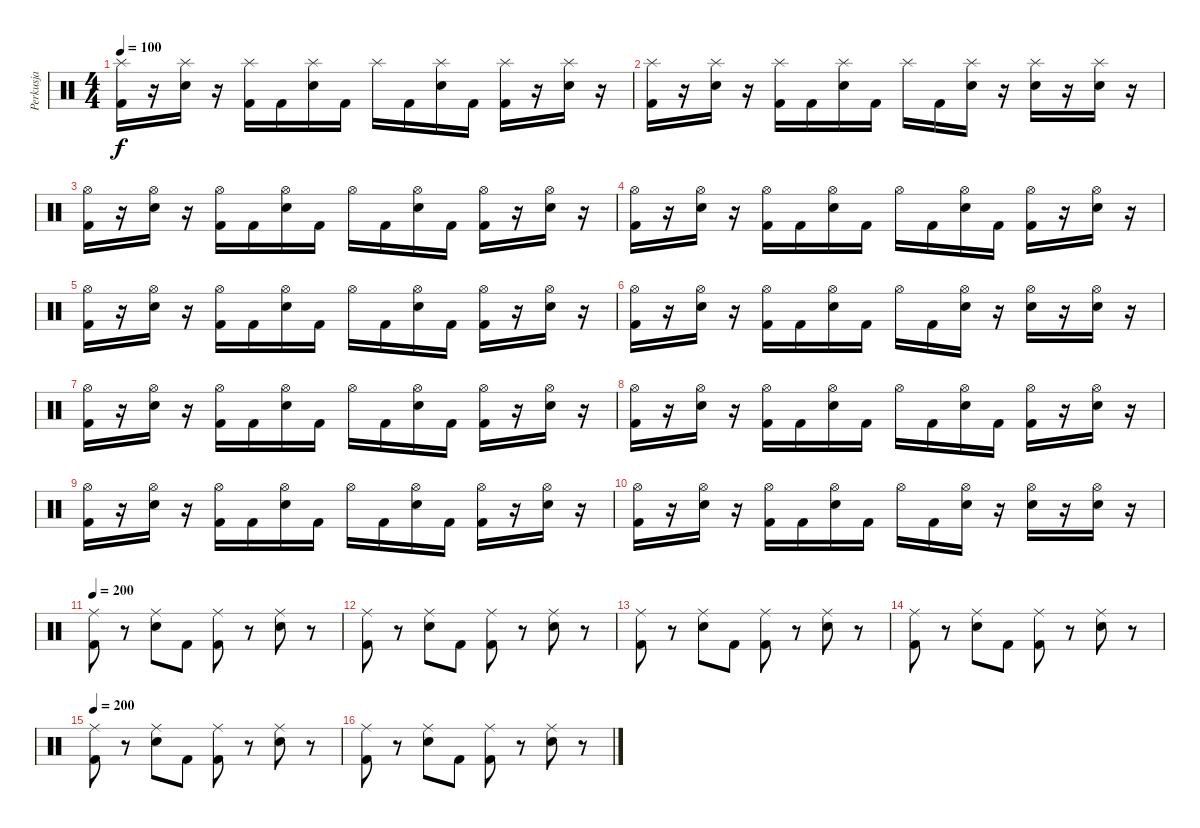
\track ("Perkusja" "Perkusja") {instrument percussion}
\staff {score}
\articulation defaults
\ts (4 4)
\tempo 100
\clef neutral
\ks c
("Splash (hit)" "Kick (hit) 2").16{dy f} r.16 ("Splash (hit)" "Snare (hit) 2").16 r.16 ("Splash (hit)" "Kick (hit) 2").16 "Kick (hit) 2".16 ("Splash (hit)" "Snare (hit) 2").16 "Kick (hit) 2".16 "Splash (hit)".16 "Kick (hit) 2".16 ("Splash (hit)" "Snare (hit) 2").16 "Kick (hit) 2".16 ("Splash (hit)" "Kick (hit) 2").16 r.16 ("Splash (hit)" "Snare (hit) 2").16 r.16 |
("Splash (hit)" "Kick (hit) 2").16 r.16 ("Splash (hit)" "Snare (hit) 2").16 r.16 ("Splash (hit)" "Kick (hit) 2").16 "Kick (hit) 2".16 ("Splash (hit)" "Snare (hit) 2").16 "Kick (hit) 2".16 "Splash (hit)".16 "Kick (hit) 2".16 ("Splash (hit)" "Snare (hit) 2").16 r.16 ("Splash (hit)" "Snare (hit) 2").16 r.16 ("Splash (hit)" "Snare (hit) 2").16 r.16 |
("Hi-Hat (open)" "Kick (hit) 2").16 r.16 ("Hi-Hat (open)" "Snare (hit) 2").16 r.16 ("Hi-Hat (open)" "Kick (hit) 2").16 "Kick (hit) 2".16 ("Hi-Hat (open)" "Snare (hit) 2").16 "Kick (hit) 2".16 "Hi-Hat (open)".16 "Kick (hit) 2".16 ("Hi-Hat (open)" "Snare (hit) 2").16 "Kick (hit) 2".16 ("Hi-Hat (open)" "Kick (hit) 2").16 r.16 ("Hi-Hat (open)" "Snare (hit) 2").16 r.16 |
("Hi-Hat (open)" "Kick (hit) 2").16 r.16 ("Hi-Hat (open)" "Snare (hit) 2").16 r.16 ("Hi-Hat (open)" "Kick (hit) 2").16 "Kick (hit) 2".16 ("Hi-Hat (open)" "Snare (hit) 2").16 "Kick (hit) 2".16 "Hi-Hat (open)".16 "Kick (hit) 2".16 ("Hi-Hat (open)" "Snare (hit) 2").16 "Kick (hit) 2".16 ("Hi-Hat (open)" "Kick (hit) 2").16 r.16 ("Hi-Hat (open)" "Snare (hit) 2").16 r.16 |
("Hi-Hat (open)" "Kick (hit) 2").16 r.16 ("Hi-Hat (open)" "Snare (hit) 2").16 r.16 ("Hi-Hat (open)" "Kick (hit) 2").16 "Kick (hit) 2".16 ("Hi-Hat (open)" "Snare (hit) 2").16 "Kick (hit) 2".16 "Hi-Hat (open)".16 "Kick (hit) 2".16 ("Hi-Hat (open)" "Snare (hit) 2").16 "Kick (hit) 2".16 ("Hi-Hat (open)" "Kick (hit) 2").16 r.16 ("Hi-Hat (open)" "Snare (hit) 2").16 r.16 |
("Hi-Hat (open)" "Kick (hit) 2").16 r.16 ("Hi-Hat (open)" "Snare (hit) 2").16 r.16 ("Hi-Hat (open)" "Kick (hit) 2").16 "Kick (hit) 2".16 ("Hi-Hat (open)" "Snare (hit) 2").16 "Kick (hit) 2".16 "Hi-Hat (open)".16 "Kick (hit) 2".16 ("Hi-Hat (open)" "Snare (hit) 2").16 r.16 ("Hi-Hat (open)" "Snare (hit) 2").16 r.16 ("Hi-Hat (open)" "Snare (hit) 2").16 r.16 |
("Hi-Hat (open)" "Kick (hit) 2").16 r.16 ("Hi-Hat (open)" "Snare (hit) 2").16 r.16 ("Hi-Hat (open)" "Kick (hit) 2").16 "Kick (hit) 2".16 ("Hi-Hat (open)" "Snare (hit) 2").16 "Kick (hit) 2".16 "Hi-Hat (open)".16 "Kick (hit) 2".16 ("Hi-Hat (open)" "Snare (hit) 2").16 "Kick (hit) 2".16 ("Hi-Hat (open)" "Kick (hit) 2").16 r.16 ("Hi-Hat (open)" "Snare (hit) 2").16 r.16 |
("Hi-Hat (open)" "Kick (hit) 2").16 r.16 ("Hi-Hat (open)" "Snare (hit) 2").16 r.16 ("Hi-Hat (open)" "Kick (hit) 2").16 "Kick (hit) 2".16 ("Hi-Hat (open)" "Snare (hit) 2").16 "Kick (hit) 2".16 "Hi-Hat (open)".16 "Kick (hit) 2".16 ("Hi-Hat (open)" "Snare (hit) 2").16 "Kick (hit) 2".16 ("Hi-Hat (open)" "Kick (hit) 2").16 r.16 ("Hi-Hat (open)" "Snare (hit) 2").16 r.16 |
("Hi-Hat (open)" "Kick (hit) 2").16 r.16 ("Hi-Hat (open)" "Snare (hit) 2").16 r.16 ("Hi-Hat (open)" "Kick (hit) 2").16 "Kick (hit) 2".16 ("Hi-Hat (open)" "Snare (hit) 2").16 "Kick (hit) 2".16 "Hi-Hat (open)".16 "Kick (hit) 2".16 ("Hi-Hat (open)" "Snare (hit) 2").16 "Kick (hit) 2".16 ("Hi-Hat (open)" "Kick (hit) 2").16 r.16 ("Hi-Hat (open)" "Snare (hit) 2").16 r.16 |
("Hi-Hat (open)" "Kick (hit) 2").16 r.16 ("Hi-Hat (open)" "Snare (hit) 2").16 r.16 ("Hi-Hat (open)" "Kick (hit) 2").16 "Kick (hit) 2".16 ("Hi-Hat (open)" "Snare (hit) 2").16 "Kick (hit) 2".16 "Hi-Hat (open)".16 "Kick (hit) 2".16 ("Hi-Hat (open)" "Snare (hit) 2").16 r.16 ("Hi-Hat (open)" "Snare (hit) 2").16 r.16 ("Hi-Hat (open)" "Snare (hit) 2").16 r.16 |
\tempo 200
("Ride (middle)" "Kick (hit) 2").8 r.8 ("Ride (middle)" "Snare (hit) 2").8 "Kick (hit) 2".8 ("Ride (middle)" "Kick (hit) 2").8 r.8 ("Ride (middle)" "Snare (hit) 2").8 r.8 |
("Ride (middle)" "Kick (hit) 2").8 r.8 ("Ride (middle)" "Snare (hit) 2").8 "Kick (hit) 2".8 ("Ride (middle)" "Kick (hit) 2").8 r.8 ("Ride (middle)" "Snare (hit) 2").8 r.8 |
("Ride (middle)" "Kick (hit) 2").8 r.8 ("Ride (middle)" "Snare (hit) 2").8 "Kick (hit) 2".8 ("Ride (middle)" "Kick (hit) 2").8 r.8 ("Ride (middle)" "Snare (hit) 2").8 r.8 |
("Ride (middle)" "Kick (hit) 2").8 r.8 ("Ride (middle)" "Snare (hit) 2").8 "Kick (hit) 2".8 ("Ride (middle)" "Kick (hit) 2").8 r.8 ("Ride (middle)" "Snare (hit) 2").8 r.8 |
\tempo 200
("Ride (middle)" "Kick (hit) 2").8 r.8 ("Ride (middle)" "Snare (hit) 2").8 "Kick (hit) 2".8 ("Ride (middle)" "Kick (hit) 2").8 r.8 ("Ride (middle)" "Snare (hit) 2").8 r.8 |
("Ride (middle)" "Kick (hit) 2").8 r.8 ("Ride (middle)" "Snare (hit) 2").8 "Kick (hit) 2".8 ("Ride (middle)" "Kick (hit) 2").8 r.8 ("Ride (middle)" "Snare (hit) 2").8 r.8
